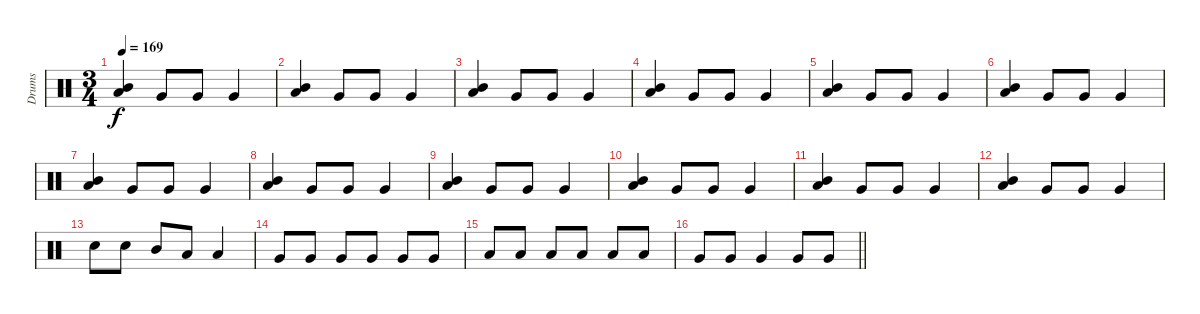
\track ("Drums" "Drums") {instrument percussion}
\staff {score}
\articulation defaults
\ts (3 4)
\tempo 169
\clef neutral
\ks c
("Low Tom (hit)" "Mid Tom (hit)").4{dy f} "Very Low Tom (hit)".8 "Very Low Tom (hit)".8 "Very Low Tom (hit)".4 |
("Low Tom (hit)" "Mid Tom (hit)").4 "Very Low Tom (hit)".8 "Very Low Tom (hit)".8 "Very Low Tom (hit)".4 |
("Low Tom (hit)" "Mid Tom (hit)").4 "Very Low Tom (hit)".8 "Very Low Tom (hit)".8 "Very Low Tom (hit)".4 |
("Low Tom (hit)" "Mid Tom (hit)").4 "Very Low Tom (hit)".8 "Very Low Tom (hit)".8 "Very Low Tom (hit)".4 |
("Low Tom (hit)" "Mid Tom (hit)").4 "Very Low Tom (hit)".8 "Very Low Tom (hit)".8 "Very Low Tom (hit)".4 |
("Low Tom (hit)" "Mid Tom (hit)").4 "Very Low Tom (hit)".8 "Very Low Tom (hit)".8 "Very Low Tom (hit)".4 |
("Low Tom (hit)" "Mid Tom (hit)").4 "Very Low Tom (hit)".8 "Very Low Tom (hit)".8 "Very Low Tom (hit)".4 |
("Low Tom (hit)" "Mid Tom (hit)").4 "Very Low Tom (hit)".8 "Very Low Tom (hit)".8 "Very Low Tom (hit)".4 |
("Low Tom (hit)" "Mid Tom (hit)").4 "Very Low Tom (hit)".8 "Very Low Tom (hit)".8 "Very Low Tom (hit)".4 |
("Low Tom (hit)" "Mid Tom (hit)").4 "Very Low Tom (hit)".8 "Very Low Tom (hit)".8 "Very Low Tom (hit)".4 |
("Low Tom (hit)" "Mid Tom (hit)").4 "Very Low Tom (hit)".8 "Very Low Tom (hit)".8 "Very Low Tom (hit)".4 |
("Low Tom (hit)" "Mid Tom (hit)").4 "Very Low Tom (hit)".8 "Very Low Tom (hit)".8 "Very Low Tom (hit)".4 |
"Snare (hit) 2".8 "Snare (hit) 2".8 "Mid Tom (hit)".8 "Low Tom (hit)".8 "Low Tom (hit)".4 |
"Very Low Tom (hit)".8 "Very Low Tom (hit)".8 "Very Low Tom (hit)".8 "Very Low Tom (hit)".8 "Very Low Tom (hit)".8 "Very Low Tom (hit)".8 |
"Low Floor Tom (hit)".8 "Low Floor Tom (hit)".8 "Low Floor Tom (hit)".8 "Low Floor Tom (hit)".8 "Low Floor Tom (hit)".8 "Low Floor Tom (hit)".8 |
\barLineRight lightlight "Very Low Tom (hit)".8 "Very Low Tom (hit)".8 "Very Low Tom (hit)".4 "Very Low Tom (hit)".8 "Very Low Tom (hit)".8
